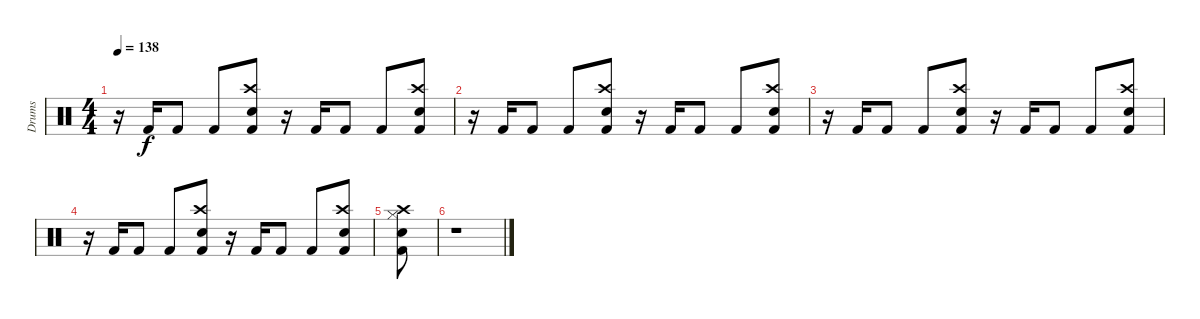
\track ("Drums" "Drums") {instrument percussion}
\staff {score}
\articulation defaults
\ts (4 4)
\tempo 138
\clef neutral
\ks c
r.16{dy f} "Kick (hit) 2".16 "Kick (hit) 2".8 "Kick (hit) 2".8 ("Crash high (hit)" "Snare (hit) 2" "Kick (hit) 2").8 r.16 "Kick (hit) 2".16 "Kick (hit) 2".8 "Kick (hit) 2".8 ("Crash high (hit)" "Snare (hit) 2" "Kick (hit) 2").8 |
r.16 "Kick (hit) 2".16 "Kick (hit) 2".8 "Kick (hit) 2".8 ("Crash high (hit)" "Snare (hit) 2" "Kick (hit) 2").8 r.16 "Kick (hit) 2".16 "Kick (hit) 2".8 "Kick (hit) 2".8 ("Crash high (hit)" "Snare (hit) 2" "Kick (hit) 2").8 |
r.16 "Kick (hit) 2".16 "Kick (hit) 2".8 "Kick (hit) 2".8 ("Crash high (hit)" "Snare (hit) 2" "Kick (hit) 2").8 r.16 "Kick (hit) 2".16 "Kick (hit) 2".8 "Kick (hit) 2".8 ("Crash high (hit)" "Snare (hit) 2" "Kick (hit) 2").8 |
r.16 "Kick (hit) 2".16 "Kick (hit) 2".8 "Kick (hit) 2".8 ("Crash high (hit)" "Snare (hit) 2" "Kick (hit) 2").8 r.16 "Kick (hit) 2".16 "Kick (hit) 2".8 "Kick (hit) 2".8 ("Crash high (hit)" "Snare (hit) 2" "Kick (hit) 2").8 |
("Hi-Hat (closed)" "Crash high (hit)" "Snare (hit) 2" "Kick (hit) 2").8 |
r.1
